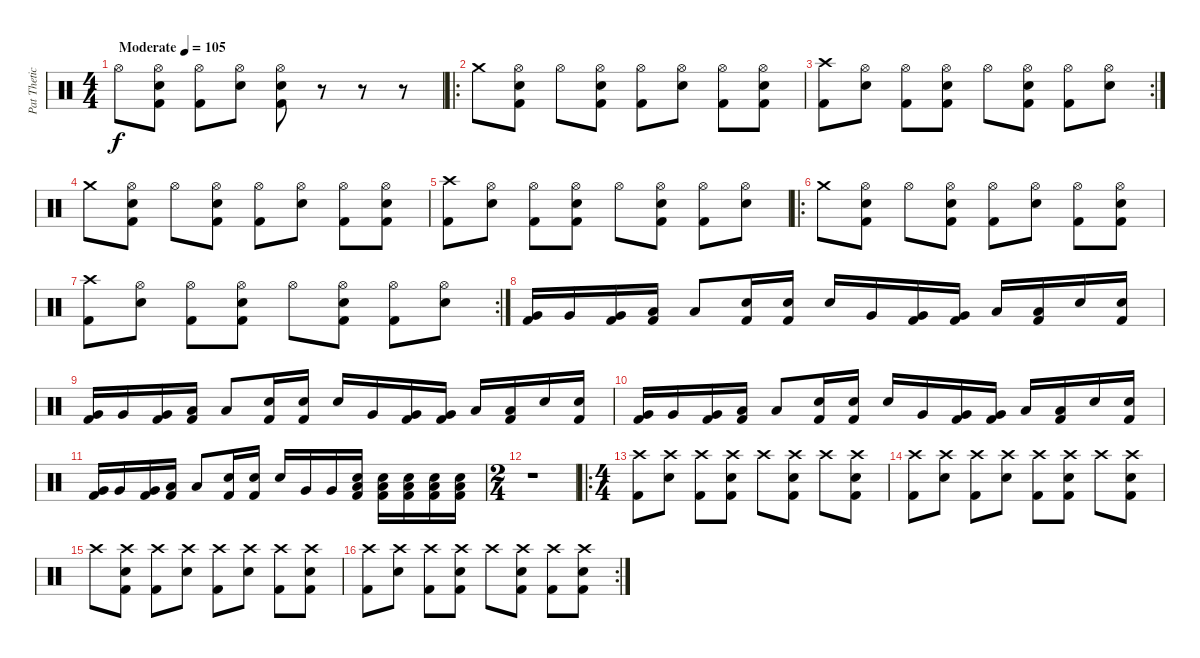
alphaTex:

\track ("Pat Thetic" "Pat Thetic") {instrument percussion}
\staff {score}
\articulation defaults
\ts (4 4)
\tempo (105 "Moderate")
\clef neutral
\ks c "Hi-Hat (open)".8{dy f}
("Hi-Hat (open)" "Snare (hit) 2" "Kick (hit) 2").8 ("Hi-Hat (open)" "Kick (hit) 2").8 ("Hi-Hat (open)" "Snare (hit) 2").8 ("Hi-Hat (open)" "Snare (hit) 2" "Kick (hit) 2").8 r.8 r.8 r.8 |
\ro "Crash medium (hit)".8
("Hi-Hat (open)" "Snare (hit) 2" "Kick (hit) 2").8 "Hi-Hat (open)".8 ("Hi-Hat (open)" "Snare (hit) 2" "Kick (hit) 2").8 ("Hi-Hat (open)" "Kick (hit) 2").8 ("Hi-Hat (open)" "Snare (hit) 2").8 ("Hi-Hat (open)" "Kick (hit) 2").8 ("Hi-Hat (open)" "Snare (hit) 2" "Kick (hit) 2").8 |
\rc 2
("Crash high (hit)" "Kick (hit) 2").8 ("Hi-Hat (open)" "Snare (hit) 2").8 ("Hi-Hat (open)" "Kick (hit) 2").8 ("Hi-Hat (open)" "Snare (hit) 2" "Kick (hit) 2").8 "Hi-Hat (open)".8 ("Hi-Hat (open)" "Snare (hit) 2" "Kick (hit) 2").8 ("Hi-Hat (open)" "Kick (hit) 2").8 ("Hi-Hat (open)" "Snare (hit) 2").8 |
"Crash medium (hit)".8 ("Hi-Hat (open)" "Snare (hit) 2" "Kick (hit) 2").8 "Hi-Hat (open)".8 ("Hi-Hat (open)" "Snare (hit) 2" "Kick (hit) 2").8 ("Hi-Hat (open)" "Kick (hit) 2").8 ("Hi-Hat (open)" "Snare (hit) 2").8 ("Hi-Hat (open)" "Kick (hit) 2").8 ("Hi-Hat (open)" "Snare (hit) 2" "Kick (hit) 2").8 |
("Crash high (hit)" "Kick (hit) 2").8 ("Hi-Hat (open)" "Snare (hit) 2").8 ("Hi-Hat (open)" "Kick (hit) 2").8 ("Hi-Hat (open)" "Snare (hit) 2" "Kick (hit) 2").8 "Hi-Hat (open)".8 ("Hi-Hat (open)" "Snare (hit) 2" "Kick (hit) 2").8 ("Hi-Hat (open)" "Kick (hit) 2").8 ("Hi-Hat (open)" "Snare (hit) 2").8 |
\ro "Crash medium (hit)".8
("Hi-Hat (open)" "Snare (hit) 2" "Kick (hit) 2").8 "Hi-Hat (open)".8 ("Hi-Hat (open)" "Snare (hit) 2" "Kick (hit) 2").8 ("Hi-Hat (open)" "Kick (hit) 2").8 ("Hi-Hat (open)" "Snare (hit) 2").8 ("Hi-Hat (open)" "Kick (hit) 2").8 ("Hi-Hat (open)" "Snare (hit) 2" "Kick (hit) 2").8 |
\rc 2
("Crash high (hit)" "Kick (hit) 2").8 ("Hi-Hat (open)" "Snare (hit) 2").8 ("Hi-Hat (open)" "Kick (hit) 2").8 ("Hi-Hat (open)" "Snare (hit) 2" "Kick (hit) 2").8 "Hi-Hat (open)".8 ("Hi-Hat (open)" "Snare (hit) 2" "Kick (hit) 2").8 ("Hi-Hat (open)" "Kick (hit) 2").8 ("Hi-Hat (open)" "Snare (hit) 2").8 |
("Very Low Tom (hit)" "Kick (hit) 2").16 "Very Low Tom (hit)".16 ("Very Low Tom (hit)" "Kick (hit) 2").16 ("Low Floor Tom (hit)" "Kick (hit) 2").16 "Low Floor Tom (hit)".8 ("Snare (hit) 2" "Kick (hit) 2").16 ("Snare (hit) 2" "Kick (hit) 2").16 "Snare (hit) 2".16 "Very Low Tom (hit)".16 ("Very Low Tom (hit)" "Kick (hit) 2").16 ("Very Low Tom (hit)" "Kick (hit) 2").16 "Low Floor Tom (hit)".16 ("Low Floor Tom (hit)" "Kick (hit) 2").16 "Snare (hit) 2".16 ("Snare (hit) 2" "Kick (hit) 2").16 |
("Very Low Tom (hit)" "Kick (hit) 2").16 "Very Low Tom (hit)".16 ("Very Low Tom (hit)" "Kick (hit) 2").16 ("Low Floor Tom (hit)" "Kick (hit) 2").16 "Low Floor Tom (hit)".8 ("Snare (hit) 2" "Kick (hit) 2").16 ("Snare (hit) 2" "Kick (hit) 2").16 "Snare (hit) 2".16 "Very Low Tom (hit)".16 ("Very Low Tom (hit)" "Kick (hit) 2").16 ("Very Low Tom (hit)" "Kick (hit) 2").16 "Low Floor Tom (hit)".16 ("Low Floor Tom (hit)" "Kick (hit) 2").16 "Snare (hit) 2".16 ("Snare (hit) 2" "Kick (hit) 2").16 |
("Very Low Tom (hit)" "Kick (hit) 2").16 "Very Low Tom (hit)".16 ("Very Low Tom (hit)" "Kick (hit) 2").16 ("Low Floor Tom (hit)" "Kick (hit) 2").16 "Low Floor Tom (hit)".8 ("Snare (hit) 2" "Kick (hit) 2").16 ("Snare (hit) 2" "Kick (hit) 2").16 "Snare (hit) 2".16 "Very Low Tom (hit)".16 ("Very Low Tom (hit)" "Kick (hit) 2").16 ("Very Low Tom (hit)" "Kick (hit) 2").16 "Low Floor Tom (hit)".16 ("Low Floor Tom (hit)" "Kick (hit) 2").16 "Snare (hit) 2".16 ("Snare (hit) 2" "Kick (hit) 2").16 |
("Very Low Tom (hit)" "Kick (hit) 2").16 "Very Low Tom (hit)".16 ("Very Low Tom (hit)" "Kick (hit) 2").16 ("Low Floor Tom (hit)" "Kick (hit) 2").16 "Low Floor Tom (hit)".8 ("Snare (hit) 2" "Kick (hit) 2").16 ("Snare (hit) 2" "Kick (hit) 2").16 "Snare (hit) 2".16 "Very Low Tom (hit)".16 "Very Low Tom (hit)".16 ("Low Floor Tom (hit)" "Snare (hit) 2" "Kick (hit) 2").16 ("Low Floor Tom (hit)" "Snare (hit) 2" "Kick (hit) 2").16 ("Low Floor Tom (hit)" "Snare (hit) 2" "Kick (hit) 2").16 ("Low Floor Tom (hit)" "Snare (hit) 2" "Kick (hit) 2").16 ("Low Floor Tom (hit)" "Snare (hit) 2" "Kick (hit) 2").16 |
\ts (2 4)
r.1 |
\ro
\ts (4 4)
("Crash high (hit)" "Kick (hit) 2").8 ("Crash high (hit)" "Snare (hit) 2").8 ("Crash high (hit)" "Kick (hit) 2").8 ("Crash high (hit)" "Snare (hit) 2" "Kick (hit) 2").8 "Crash high (hit)".8 ("Crash high (hit)" "Snare (hit) 2" "Kick (hit) 2").8 "Crash high (hit)".8 ("Crash high (hit)" "Snare (hit) 2" "Kick (hit) 2").8 |
("Crash high (hit)" "Kick (hit) 2").8 ("Crash high (hit)" "Snare (hit) 2").8 ("Crash high (hit)" "Kick (hit) 2").8 ("Crash high (hit)" "Snare (hit) 2").8 ("Crash high (hit)" "Kick (hit) 2").8 ("Crash high (hit)" "Snare (hit) 2" "Kick (hit) 2").8 "Crash high (hit)".8 ("Crash high (hit)" "Snare (hit) 2" "Kick (hit) 2").8 |
"Crash high (hit)".8 ("Crash high (hit)" "Snare (hit) 2" "Kick (hit) 2").8 ("Crash high (hit)" "Kick (hit) 2").8 ("Crash high (hit)" "Snare (hit) 2").8 ("Crash high (hit)" "Kick (hit) 2").8 ("Crash high (hit)" "Snare (hit) 2").8 ("Crash high (hit)" "Kick (hit) 2").8 ("Crash high (hit)" "Snare (hit) 2" "Kick (hit) 2").8 |
\rc 2
("Crash high (hit)" "Kick (hit) 2").8 ("Crash high (hit)" "Snare (hit) 2").8 ("Crash high (hit)" "Kick (hit) 2").8 ("Crash high (hit)" "Snare (hit) 2" "Kick (hit) 2").8 "Crash high (hit)".8 ("Crash high (hit)" "Snare (hit) 2" "Kick (hit) 2").8 ("Crash high (hit)" "Kick (hit) 2").8 ("Crash high (hit)" "Snare (hit) 2" "Kick (hit) 2").8
